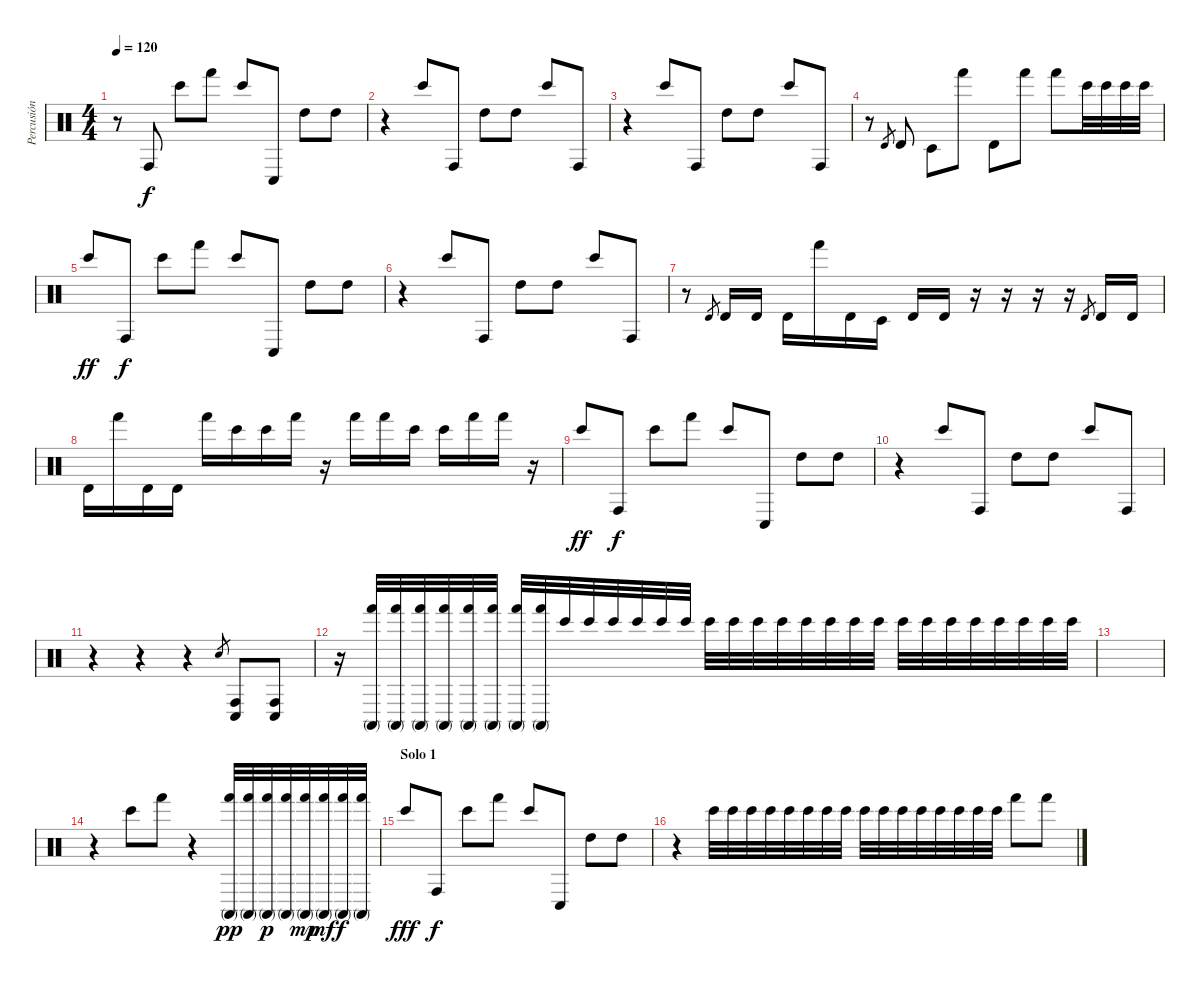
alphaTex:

\track ("Percusión" "Percusión") {instrument percussion}
\staff {score}
\articulation defaults
\ts (4 4)
\tempo 120
\clef neutral
\ks c
r.8{dy f} "Conga high (hit)".8 "Bongo High (hit)".8 "Hand (hit)".8 "Bongo High (hit)".8 "Conga low (hit)".8 "High Tom (hit)".8 "High Tom (hit)".8 |
r.4 "Bongo High (hit)".8 "Conga high (hit)".8 "High Tom (hit)".8 "High Tom (hit)".8 "Bongo High (hit)".8 "Conga high (hit)".8 |
r.4 "Bongo High (hit)".8 "Conga high (hit)".8 "High Tom (hit)".8 "High Tom (hit)".8 "Bongo High (hit)".8 "Conga high (hit)".8 |
r.8 "Timbale high (hit)".8{gr} "Timbale high (hit)".8 "Timbale low (hit)".8 "Hand (hit)".8 "Timbale high (hit)".8 "Hand (hit)".8 "Hand (hit)".8 "Bongo High (hit)".32 "Bongo High (hit)".32 "Bongo High (hit)".32 "Bongo High (hit)".32 |
"Bongo High (hit)".8{dy ff} "Conga high (hit)".8{dy f} "Bongo High (hit)".8 "Hand (hit)".8 "Bongo High (hit)".8 "Conga low (hit)".8 "High Tom (hit)".8 "High Tom (hit)".8 |
r.4 "Bongo High (hit)".8 "Conga high (hit)".8 "High Tom (hit)".8 "High Tom (hit)".8 "Bongo High (hit)".8 "Conga high (hit)".8 |
r.8 "Timbale high (hit)".8{gr} "Timbale high (hit)".16 "Timbale high (hit)".16 "Timbale high (hit)".16 "Hand (hit)".16 "Timbale high (hit)".16 "Timbale low (hit)".16 "Timbale high (hit)".16 "Timbale high (hit)".16 r.16 r.16 r.16 r.16 "Timbale high (hit)".8{gr} "Timbale high (hit)".16 "Timbale high (hit)".16 |
"Timbale high (hit)".16 "Hand (hit)".16 "Timbale high (hit)".16 "Timbale high (hit)".16 "Hand (hit)".16 "Bongo High (hit)".16 "Bongo High (hit)".16 "Hand (hit)".16 r.16 "Hand (hit)".16 "Hand (hit)".16 "Bongo High (hit)".16 "Bongo High (hit)".16 "Hand (hit)".16 "Hand (hit)".16 r.16 |
"Bongo High (hit)".8{dy ff} "Conga high (hit)".8{dy f} "Bongo High (hit)".8 "Hand (hit)".8 "Bongo High (hit)".8 "Conga low (hit)".8 "High Tom (hit)".8 "High Tom (hit)".8 |
r.4 "Bongo High (hit)".8 "Conga high (hit)".8 "High Tom (hit)".8 "High Tom (hit)".8 "Bongo High (hit)".8 "Conga high (hit)".8 |
r.4 r.4 r.4 "Snare (hit)".8{gr} ("Conga high (hit)" "Conga low (hit)").8 ("Conga high (hit)" "Conga low (hit)").8 |
r.16 ("Conga high (mute)" "Hand (hit)").32 ("Conga high (mute)" "Hand (hit)").32 ("Conga high (mute)" "Hand (hit)").32 ("Conga high (mute)" "Hand (hit)").32 ("Conga high (mute)" "Hand (hit)").32 ("Conga high (mute)" "Hand (hit)").32 ("Conga high (mute)" "Hand (hit)").32 ("Conga high (mute)" "Hand (hit)").32 "Bongo High (hit)".32 "Bongo High (hit)".32 "Bongo High (hit)".32 "Bongo High (hit)".32 "Bongo High (hit)".32 "Bongo High (hit)".32 "Bongo High (hit)".32 "Bongo High (hit)".32 "Bongo High (hit)".32 "Bongo High (hit)".32 "Bongo High (hit)".32 "Bongo High (hit)".32 "Bongo High (hit)".32 "Bongo High (hit)".32 "Bongo High (hit)".32 "Bongo High (hit)".32 "Bongo High (hit)".32 "Bongo High (hit)".32 "Bongo High (hit)".32 "Bongo High (hit)".32 "Bongo High (hit)".32 "Bongo High (hit)".32 |
|
r.4 "Bongo High (hit)".8 "Hand (hit)".8 r.4 ("Conga high (mute)" "Hand (hit)").32{dy pp} ("Conga high (mute)" "Hand (hit)").32 ("Conga high (mute)" "Hand (hit)").32{dy p} ("Conga high (mute)" "Hand (hit)").32 ("Conga high (mute)" "Hand (hit)").32{dy mp} ("Conga high (mute)" "Hand (hit)").32{dy mf} ("Conga high (mute)" "Hand (hit)").32{dy f} ("Conga high (mute)" "Hand (hit)").32 |
\section ("" "Solo 1")
"Bongo High (hit)".8{dy fff} "Conga high (hit)".8{dy f} "Bongo High (hit)".8 "Hand (hit)".8 "Bongo High (hit)".8 "Conga low (hit)".8 "High Tom (hit)".8 "High Tom (hit)".8 |
r.4 "Bongo High (hit)".32 "Bongo High (hit)".32 "Bongo High (hit)".32 "Bongo High (hit)".32 "Bongo High (hit)".32 "Bongo High (hit)".32 "Bongo High (hit)".32 "Bongo High (hit)".32 "Bongo High (hit)".32 "Bongo High (hit)".32 "Bongo High (hit)".32 "Bongo High (hit)".32 "Bongo High (hit)".32 "Bongo High (hit)".32 "Bongo High (hit)".32 "Bongo High (hit)".32 "Hand (hit)".8 "Hand (hit)".8
